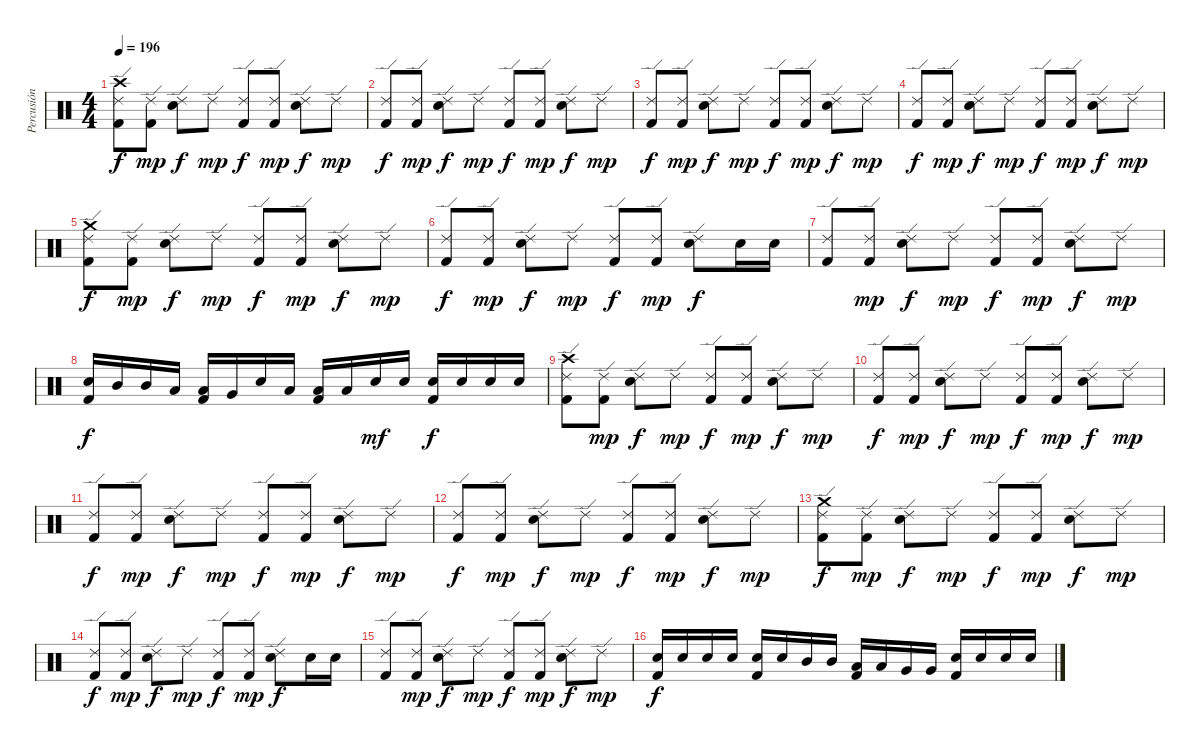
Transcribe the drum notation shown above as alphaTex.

\track ("Percusión" "Percusión") {instrument percussion}
\staff {score}
\articulation defaults
\ts (4 4)
\tempo 196
\clef neutral
\ks c
("Crash high (hit)" "Ride (edge) 2" "Kick (hit) 2").8{dy f} ("Ride (edge) 2" "Kick (hit) 2").8{dy mp} ("Ride (edge) 2" "Electric Snare (hit)").8{dy f} "Ride (edge) 2".8{dy mp} ("Ride (edge) 2" "Kick (hit) 2").8{dy f} ("Ride (edge) 2" "Kick (hit) 2").8{dy mp} ("Ride (edge) 2" "Electric Snare (hit)").8{dy f} "Ride (edge) 2".8{dy mp} |
("Ride (edge) 2" "Kick (hit) 2").8{dy f} ("Ride (edge) 2" "Kick (hit) 2").8{dy mp} ("Ride (edge) 2" "Electric Snare (hit)").8{dy f} "Ride (edge) 2".8{dy mp} ("Ride (edge) 2" "Kick (hit) 2").8{dy f} ("Ride (edge) 2" "Kick (hit) 2").8{dy mp} ("Ride (edge) 2" "Electric Snare (hit)").8{dy f} "Ride (edge) 2".8{dy mp} |
("Ride (edge) 2" "Kick (hit) 2").8{dy f} ("Ride (edge) 2" "Kick (hit) 2").8{dy mp} ("Ride (edge) 2" "Electric Snare (hit)").8{dy f} "Ride (edge) 2".8{dy mp} ("Ride (edge) 2" "Kick (hit) 2").8{dy f} ("Ride (edge) 2" "Kick (hit) 2").8{dy mp} ("Ride (edge) 2" "Electric Snare (hit)").8{dy f} "Ride (edge) 2".8{dy mp} |
("Ride (edge) 2" "Kick (hit) 2").8{dy f} ("Ride (edge) 2" "Kick (hit) 2").8{dy mp} ("Ride (edge) 2" "Electric Snare (hit)").8{dy f} "Ride (edge) 2".8{dy mp} ("Ride (edge) 2" "Kick (hit) 2").8{dy f} ("Ride (edge) 2" "Kick (hit) 2").8{dy mp} ("Ride (edge) 2" "Electric Snare (hit)").8{dy f} "Ride (edge) 2".8{dy mp} |
("Crash medium (hit)" "Ride (edge) 2" "Kick (hit) 2").8{dy f} ("Ride (edge) 2" "Kick (hit) 2").8{dy mp} ("Ride (edge) 2" "Electric Snare (hit)").8{dy f} "Ride (edge) 2".8{dy mp} ("Ride (edge) 2" "Kick (hit) 2").8{dy f} ("Ride (edge) 2" "Kick (hit) 2").8{dy mp} ("Ride (edge) 2" "Electric Snare (hit)").8{dy f} "Ride (edge) 2".8{dy mp} |
("Ride (edge) 2" "Kick (hit) 2").8{dy f} ("Ride (edge) 2" "Kick (hit) 2").8{dy mp} ("Ride (edge) 2" "Electric Snare (hit)").8{dy f} "Ride (edge) 2".8{dy mp} ("Ride (edge) 2" "Kick (hit) 2").8{dy f} ("Ride (edge) 2" "Kick (hit) 2").8{dy mp} ("Ride (edge) 2" "Electric Snare (hit)").8{dy f} "Electric Snare (hit)".16 "Electric Snare (hit)".16 |
("Ride (edge) 2" "Kick (hit) 2").8 ("Ride (edge) 2" "Kick (hit) 2").8{dy mp} ("Ride (edge) 2" "Electric Snare (hit)").8{dy f} "Ride (edge) 2".8{dy mp} ("Ride (edge) 2" "Kick (hit) 2").8{dy f} ("Ride (edge) 2" "Kick (hit) 2").8{dy mp} ("Ride (edge) 2" "Electric Snare (hit)").8{dy f} "Ride (edge) 2".8{dy mp} |
("Electric Snare (hit)" "Kick (hit) 2").16{dy f} "Mid Tom (hit)".16 "Mid Tom (hit)".16 "Low Tom (hit)".16 ("Low Tom (hit)" "Kick (hit) 2").16 "Very Low Tom (hit)".16 "Electric Snare (hit)".16 "Low Tom (hit)".16 ("Low Tom (hit)" "Kick (hit) 2").16 "Low Floor Tom (hit)".16 "Electric Snare (hit)".16{dy mf} "Electric Snare (hit)".16 ("Electric Snare (hit)" "Kick (hit) 2").16{dy f} "Electric Snare (hit)".16 "Electric Snare (hit)".16 "Electric Snare (hit)".16 |
("Crash high (hit)" "Ride (edge) 2" "Kick (hit) 2").8 ("Ride (edge) 2" "Kick (hit) 2").8{dy mp} ("Ride (edge) 2" "Electric Snare (hit)").8{dy f} "Ride (edge) 2".8{dy mp} ("Ride (edge) 2" "Kick (hit) 2").8{dy f} ("Ride (edge) 2" "Kick (hit) 2").8{dy mp} ("Ride (edge) 2" "Electric Snare (hit)").8{dy f} "Ride (edge) 2".8{dy mp} |
("Ride (edge) 2" "Kick (hit) 2").8{dy f} ("Ride (edge) 2" "Kick (hit) 2").8{dy mp} ("Ride (edge) 2" "Electric Snare (hit)").8{dy f} "Ride (edge) 2".8{dy mp} ("Ride (edge) 2" "Kick (hit) 2").8{dy f} ("Ride (edge) 2" "Kick (hit) 2").8{dy mp} ("Ride (edge) 2" "Electric Snare (hit)").8{dy f} "Ride (edge) 2".8{dy mp} |
("Ride (edge) 2" "Kick (hit) 2").8{dy f} ("Ride (edge) 2" "Kick (hit) 2").8{dy mp} ("Ride (edge) 2" "Electric Snare (hit)").8{dy f} "Ride (edge) 2".8{dy mp} ("Ride (edge) 2" "Kick (hit) 2").8{dy f} ("Ride (edge) 2" "Kick (hit) 2").8{dy mp} ("Ride (edge) 2" "Electric Snare (hit)").8{dy f} "Ride (edge) 2".8{dy mp} |
("Ride (edge) 2" "Kick (hit) 2").8{dy f} ("Ride (edge) 2" "Kick (hit) 2").8{dy mp} ("Ride (edge) 2" "Electric Snare (hit)").8{dy f} "Ride (edge) 2".8{dy mp} ("Ride (edge) 2" "Kick (hit) 2").8{dy f} ("Ride (edge) 2" "Kick (hit) 2").8{dy mp} ("Ride (edge) 2" "Electric Snare (hit)").8{dy f} "Ride (edge) 2".8{dy mp} |
("Crash medium (hit)" "Ride (edge) 2" "Kick (hit) 2").8{dy f} ("Ride (edge) 2" "Kick (hit) 2").8{dy mp} ("Ride (edge) 2" "Electric Snare (hit)").8{dy f} "Ride (edge) 2".8{dy mp} ("Ride (edge) 2" "Kick (hit) 2").8{dy f} ("Ride (edge) 2" "Kick (hit) 2").8{dy mp} ("Ride (edge) 2" "Electric Snare (hit)").8{dy f} "Ride (edge) 2".8{dy mp} |
("Ride (edge) 2" "Kick (hit) 2").8{dy f} ("Ride (edge) 2" "Kick (hit) 2").8{dy mp} ("Ride (edge) 2" "Electric Snare (hit)").8{dy f} "Ride (edge) 2".8{dy mp} ("Ride (edge) 2" "Kick (hit) 2").8{dy f} ("Ride (edge) 2" "Kick (hit) 2").8{dy mp} ("Ride (edge) 2" "Electric Snare (hit)").8{dy f} "Electric Snare (hit)".16 "Electric Snare (hit)".16 |
("Ride (edge) 2" "Kick (hit) 2").8 ("Ride (edge) 2" "Kick (hit) 2").8{dy mp} ("Ride (edge) 2" "Electric Snare (hit)").8{dy f} "Ride (edge) 2".8{dy mp} ("Ride (edge) 2" "Kick (hit) 2").8{dy f} ("Ride (edge) 2" "Kick (hit) 2").8{dy mp} ("Ride (edge) 2" "Electric Snare (hit)").8{dy f} "Ride (edge) 2".8{dy mp} |
("Electric Snare (hit)" "Kick (hit) 2").16{dy f} "Electric Snare (hit)".16 "Electric Snare (hit)".16 "Electric Snare (hit)".16 ("Electric Snare (hit)" "Kick (hit) 2").16 "Electric Snare (hit)".16 "Mid Tom (hit)".16 "Mid Tom (hit)".16 ("Low Tom (hit)" "Kick (hit) 2").16 "Low Tom (hit)".16 "Very Low Tom (hit)".16 "Very Low Tom (hit)".16 ("Electric Snare (hit)" "Kick (hit) 2").16 "Electric Snare (hit)".16 "Electric Snare (hit)".16 "Electric Snare (hit)".16
